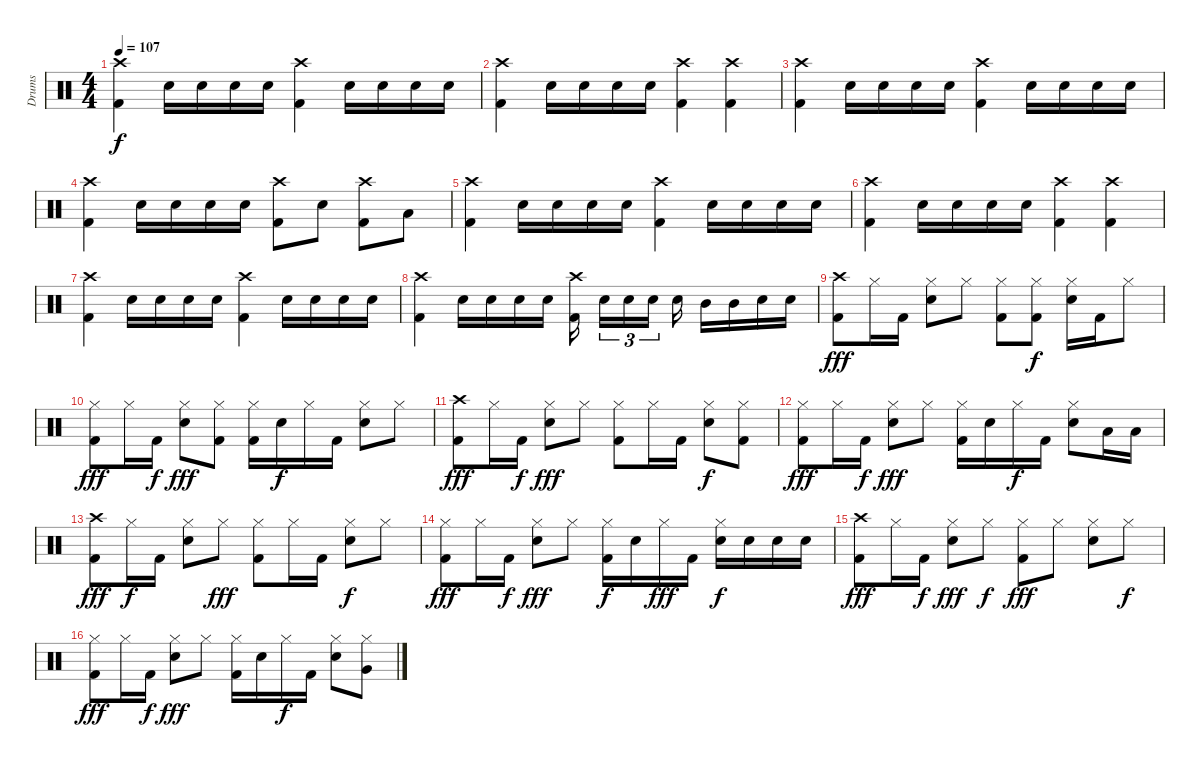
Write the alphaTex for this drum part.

\track ("Drums" "Drums") {instrument percussion}
\staff {score}
\articulation defaults
\ts (4 4)
\tempo 107
\clef neutral
\ks c
("Crash high (hit)" "Kick (hit) 2").4{dy f} "Electric Snare (hit)".16 "Electric Snare (hit)".16 "Electric Snare (hit)".16 "Electric Snare (hit)".16 ("Crash high (hit)" "Kick (hit) 2").4 "Electric Snare (hit)".16 "Electric Snare (hit)".16 "Electric Snare (hit)".16 "Electric Snare (hit)".16 |
("Crash high (hit)" "Kick (hit) 2").4 "Electric Snare (hit)".16 "Electric Snare (hit)".16 "Electric Snare (hit)".16 "Electric Snare (hit)".16 ("Crash high (hit)" "Kick (hit) 2").4 ("Crash high (hit)" "Kick (hit) 2").4 |
("Crash high (hit)" "Kick (hit) 2").4 "Electric Snare (hit)".16 "Electric Snare (hit)".16 "Electric Snare (hit)".16 "Electric Snare (hit)".16 ("Crash high (hit)" "Kick (hit) 2").4 "Electric Snare (hit)".16 "Electric Snare (hit)".16 "Electric Snare (hit)".16 "Electric Snare (hit)".16 |
("Crash high (hit)" "Kick (hit) 2").4 "Electric Snare (hit)".16 "Electric Snare (hit)".16 "Electric Snare (hit)".16 "Electric Snare (hit)".16 ("Crash high (hit)" "Kick (hit) 2").8 "Electric Snare (hit)".8 ("Crash high (hit)" "Kick (hit) 2").8 "Low Tom (hit)".8 |
("Crash high (hit)" "Kick (hit) 2").4 "Electric Snare (hit)".16 "Electric Snare (hit)".16 "Electric Snare (hit)".16 "Electric Snare (hit)".16 ("Crash high (hit)" "Kick (hit) 2").4 "Electric Snare (hit)".16 "Electric Snare (hit)".16 "Electric Snare (hit)".16 "Electric Snare (hit)".16 |
("Crash high (hit)" "Kick (hit) 2").4 "Electric Snare (hit)".16 "Electric Snare (hit)".16 "Electric Snare (hit)".16 "Electric Snare (hit)".16 ("Crash high (hit)" "Kick (hit) 2").4 ("Crash high (hit)" "Kick (hit) 2").4 |
("Crash high (hit)" "Kick (hit) 2").4 "Electric Snare (hit)".16 "Electric Snare (hit)".16 "Electric Snare (hit)".16 "Electric Snare (hit)".16 ("Crash high (hit)" "Kick (hit) 2").4 "Electric Snare (hit)".16 "Electric Snare (hit)".16 "Electric Snare (hit)".16 "Electric Snare (hit)".16 |
("Crash high (hit)" "Kick (hit) 2").4 "Electric Snare (hit)".16 "Electric Snare (hit)".16 "Electric Snare (hit)".16 "Electric Snare (hit)".16 ("Crash high (hit)" "Kick (hit) 2").16 "Electric Snare (hit)".16{tu (3 2)} "Electric Snare (hit)".16{tu (3 2)} "Electric Snare (hit)".16{tu (3 2)} "Electric Snare (hit)".16 "Mid Tom (hit)".16 "Mid Tom (hit)".16 "Electric Snare (hit)".16 "Electric Snare (hit)".16 |
("Crash high (hit)" "Kick (hit) 2").8{dy fff} "Hi-Hat (closed)".16 "Kick (hit) 2".16 ("Hi-Hat (closed)" "Electric Snare (hit)").8 "Hi-Hat (closed)".8 ("Hi-Hat (closed)" "Kick (hit) 2").8 ("Hi-Hat (closed)" "Kick (hit) 2").8{dy f} ("Hi-Hat (closed)" "Electric Snare (hit)").16 "Kick (hit) 2".16 "Hi-Hat (closed)".8 |
("Hi-Hat (closed)" "Kick (hit) 2").8{dy fff} "Hi-Hat (closed)".16 "Kick (hit) 2".16{dy f} ("Hi-Hat (closed)" "Electric Snare (hit)").8{dy fff} ("Hi-Hat (closed)" "Kick (hit) 2").8 ("Hi-Hat (closed)" "Kick (hit) 2").16 "Electric Snare (hit)".16{dy f} "Hi-Hat (closed)".16 "Kick (hit) 2".16 ("Hi-Hat (closed)" "Electric Snare (hit)").8 "Hi-Hat (closed)".8 |
("Crash high (hit)" "Kick (hit) 2").8{dy fff} "Hi-Hat (closed)".16 "Kick (hit) 2".16{dy f} ("Hi-Hat (closed)" "Electric Snare (hit)").8{dy fff} "Hi-Hat (closed)".8 ("Hi-Hat (closed)" "Kick (hit) 2").8 "Hi-Hat (closed)".16 "Kick (hit) 2".16 ("Hi-Hat (closed)" "Electric Snare (hit)").8{dy f} ("Hi-Hat (closed)" "Kick (hit) 2").8 |
("Hi-Hat (closed)" "Kick (hit) 2").8{dy fff} "Hi-Hat (closed)".16 "Kick (hit) 2".16{dy f} ("Hi-Hat (closed)" "Electric Snare (hit)").8{dy fff} "Hi-Hat (closed)".8 ("Hi-Hat (closed)" "Kick (hit) 2").16 "Electric Snare (hit)".16 "Hi-Hat (closed)".16{dy f} "Kick (hit) 2".16 ("Hi-Hat (closed)" "Electric Snare (hit)").8 "Low Tom (hit)".16 "Low Tom (hit)".16 |
("Crash high (hit)" "Kick (hit) 2").8{dy fff} "Hi-Hat (closed)".16{dy f} "Kick (hit) 2".16 ("Hi-Hat (closed)" "Electric Snare (hit)").8 "Hi-Hat (closed)".8{dy fff} ("Hi-Hat (closed)" "Kick (hit) 2").8 "Hi-Hat (closed)".16 "Kick (hit) 2".16 ("Hi-Hat (closed)" "Electric Snare (hit)").8{dy f} "Hi-Hat (closed)".8 |
("Hi-Hat (closed)" "Kick (hit) 2").8{dy fff} "Hi-Hat (closed)".16 "Kick (hit) 2".16{dy f} ("Hi-Hat (closed)" "Electric Snare (hit)").8{dy fff} "Hi-Hat (closed)".8 ("Hi-Hat (closed)" "Kick (hit) 2").16{dy f} "Electric Snare (hit)".16 "Hi-Hat (closed)".16{dy fff} "Kick (hit) 2".16 ("Hi-Hat (closed)" "Electric Snare (hit)").16{dy f} "Electric Snare (hit)".16 "Electric Snare (hit)".16 "Electric Snare (hit)".16 |
("Crash high (hit)" "Kick (hit) 2").8{dy fff} "Hi-Hat (closed)".16 "Kick (hit) 2".16{dy f} ("Hi-Hat (closed)" "Electric Snare (hit)").8{dy fff} "Hi-Hat (closed)".8{dy f} ("Hi-Hat (closed)" "Kick (hit) 2").8{dy fff} "Hi-Hat (closed)".8 ("Hi-Hat (closed)" "Electric Snare (hit)").8 "Hi-Hat (closed)".8{dy f} |
("Hi-Hat (closed)" "Kick (hit) 2").8{dy fff} "Hi-Hat (closed)".16 "Kick (hit) 2".16{dy f} ("Hi-Hat (closed)" "Electric Snare (hit)").8{dy fff} "Hi-Hat (closed)".8 ("Hi-Hat (closed)" "Kick (hit) 2").16 "Electric Snare (hit)".16 "Hi-Hat (closed)".16{dy f} "Kick (hit) 2".16 ("Hi-Hat (closed)" "Electric Snare (hit)").8 ("Hi-Hat (closed)" "Very Low Tom (hit)").8
